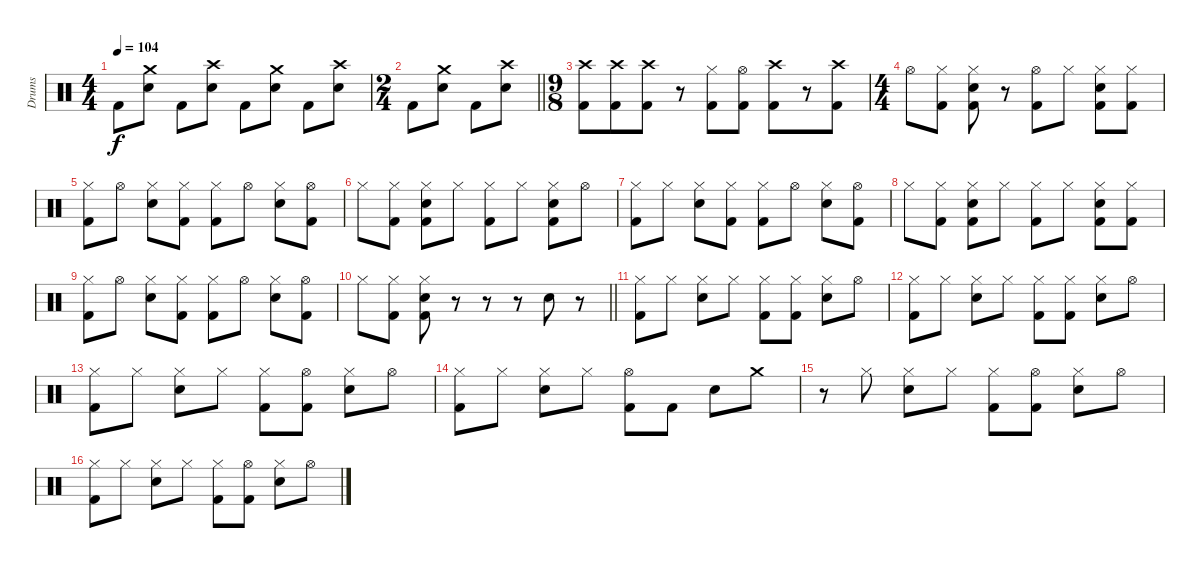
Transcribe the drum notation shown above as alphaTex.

\track ("Drums" "Drums") {instrument percussion}
\staff {score}
\articulation defaults
\ts (4 4)
\tempo 104
\clef neutral
\ks c "Kick (hit) 2".8{dy f}
("Crash medium (hit)" "Snare (hit) 2").8 "Kick (hit) 2".8 ("Crash high (hit)" "Snare (hit) 2").8 "Kick (hit) 2".8 ("Crash medium (hit)" "Snare (hit) 2").8 "Kick (hit) 2".8 ("Crash high (hit)" "Snare (hit) 2").8 |
\ts (2 4)
\barLineRight lightlight "Kick (hit) 2".8
("Crash medium (hit)" "Snare (hit) 2").8 "Kick (hit) 2".8 ("Crash high (hit)" "Snare (hit) 2").8 |
\ts (9 8)
\section ("" "")
("Crash high (hit)" "Kick (hit) 2").8 ("Crash high (hit)" "Kick (hit) 2").8 ("Crash high (hit)" "Kick (hit) 2").8 r.8 ("Hi-Hat (closed)" "Kick (hit) 2").8 ("Hi-Hat (open)" "Kick (hit) 2").8 ("Crash high (hit)" "Kick (hit) 2").8 r.8 ("Crash high (hit)" "Kick (hit) 2").8 |
\ts (4 4)
"Hi-Hat (open)".8 ("Hi-Hat (closed)" "Kick (hit) 2").8 ("Hi-Hat (closed)" "Snare (hit) 2" "Kick (hit) 2").8 r.8 ("Hi-Hat (open)" "Kick (hit) 2").8 "Hi-Hat (closed)".8 ("Hi-Hat (closed)" "Snare (hit) 2" "Kick (hit) 2").8 ("Hi-Hat (closed)" "Kick (hit) 2").8 |
("Hi-Hat (closed)" "Kick (hit) 2").8 "Hi-Hat (open)".8 ("Hi-Hat (closed)" "Snare (hit) 2").8 ("Hi-Hat (closed)" "Kick (hit) 2").8 ("Hi-Hat (closed)" "Kick (hit) 2").8 "Hi-Hat (open)".8 ("Hi-Hat (closed)" "Snare (hit) 2").8 ("Hi-Hat (open)" "Kick (hit) 2").8 |
"Hi-Hat (closed)".8 ("Hi-Hat (closed)" "Kick (hit) 2").8 ("Hi-Hat (closed)" "Snare (hit) 2" "Kick (hit) 2").8 "Hi-Hat (closed)".8 ("Hi-Hat (closed)" "Kick (hit) 2").8 "Hi-Hat (closed)".8 ("Hi-Hat (closed)" "Snare (hit) 2" "Kick (hit) 2").8 "Hi-Hat (open)".8 |
("Hi-Hat (closed)" "Kick (hit) 2").8 "Hi-Hat (closed)".8 ("Hi-Hat (closed)" "Snare (hit) 2").8 ("Hi-Hat (closed)" "Kick (hit) 2").8 ("Hi-Hat (closed)" "Kick (hit) 2").8 "Hi-Hat (open)".8 ("Hi-Hat (closed)" "Snare (hit) 2").8 ("Hi-Hat (open)" "Kick (hit) 2").8 |
"Hi-Hat (closed)".8 ("Hi-Hat (closed)" "Kick (hit) 2").8 ("Hi-Hat (closed)" "Snare (hit) 2" "Kick (hit) 2").8 "Hi-Hat (closed)".8 ("Hi-Hat (closed)" "Kick (hit) 2").8 "Hi-Hat (closed)".8 ("Hi-Hat (closed)" "Snare (hit) 2" "Kick (hit) 2").8 ("Hi-Hat (closed)" "Kick (hit) 2").8 |
("Hi-Hat (closed)" "Kick (hit) 2").8 "Hi-Hat (open)".8 ("Hi-Hat (closed)" "Snare (hit) 2").8 ("Hi-Hat (closed)" "Kick (hit) 2").8 ("Hi-Hat (closed)" "Kick (hit) 2").8 "Hi-Hat (open)".8 ("Hi-Hat (closed)" "Snare (hit) 2").8 ("Hi-Hat (open)" "Kick (hit) 2").8 |
\barLineRight lightlight "Hi-Hat (closed)".8
("Hi-Hat (closed)" "Kick (hit) 2").8 ("Hi-Hat (closed)" "Snare (hit) 2" "Kick (hit) 2").8 r.8 r.8 r.8 "Snare (hit) 2".8 r.8 |
\section ("" "")
("Hi-Hat (closed)" "Kick (hit) 2").8 "Hi-Hat (closed)".8 ("Hi-Hat (closed)" "Snare (hit) 2").8 "Hi-Hat (closed)".8 ("Hi-Hat (closed)" "Kick (hit) 2").8 ("Hi-Hat (closed)" "Kick (hit) 2").8 ("Hi-Hat (closed)" "Snare (hit) 2").8 "Hi-Hat (open)".8 |
("Hi-Hat (closed)" "Kick (hit) 2").8 "Hi-Hat (closed)".8 ("Hi-Hat (closed)" "Snare (hit) 2").8 "Hi-Hat (closed)".8 ("Hi-Hat (closed)" "Kick (hit) 2").8 ("Hi-Hat (closed)" "Kick (hit) 2").8 ("Hi-Hat (closed)" "Snare (hit) 2").8 "Hi-Hat (open)".8 |
("Hi-Hat (closed)" "Kick (hit) 2").8 "Hi-Hat (closed)".8 ("Hi-Hat (closed)" "Snare (hit) 2").8 "Hi-Hat (closed)".8 ("Hi-Hat (closed)" "Kick (hit) 2").8 ("Hi-Hat (open)" "Kick (hit) 2").8 ("Hi-Hat (closed)" "Snare (hit) 2").8 "Hi-Hat (open)".8 |
("Hi-Hat (closed)" "Kick (hit) 2").8 "Hi-Hat (closed)".8 ("Hi-Hat (closed)" "Snare (hit) 2").8 "Hi-Hat (closed)".8 ("Hi-Hat (open)" "Kick (hit) 2").8 "Kick (hit) 2".8 "Snare (hit) 2".8 "Crash medium (hit)".8 |
r.8 "Hi-Hat (closed)".8 ("Hi-Hat (closed)" "Snare (hit) 2").8 "Hi-Hat (closed)".8 ("Hi-Hat (closed)" "Kick (hit) 2").8 ("Hi-Hat (open)" "Kick (hit) 2").8 ("Hi-Hat (closed)" "Snare (hit) 2").8 "Hi-Hat (open)".8 |
("Hi-Hat (closed)" "Kick (hit) 2").8 "Hi-Hat (closed)".8 ("Hi-Hat (closed)" "Snare (hit) 2").8 "Hi-Hat (closed)".8 ("Hi-Hat (closed)" "Kick (hit) 2").8 ("Hi-Hat (open)" "Kick (hit) 2").8 ("Hi-Hat (closed)" "Snare (hit) 2").8 "Hi-Hat (open)".8
